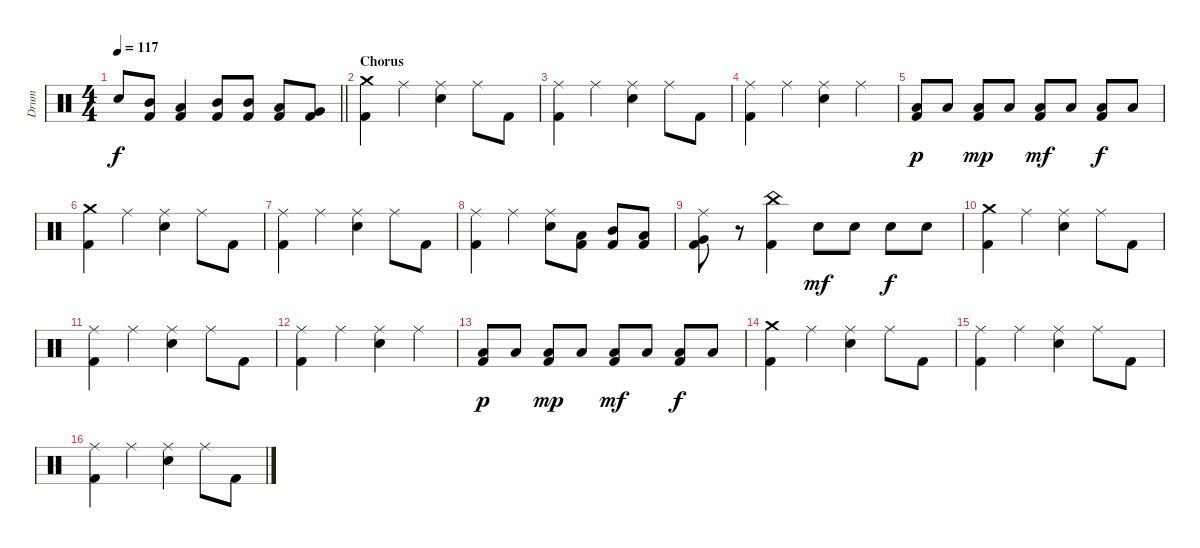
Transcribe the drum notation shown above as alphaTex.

\track ("Drum" "Drum") {instrument percussion}
\staff {score}
\articulation defaults
\ts (4 4)
\tempo 117
\clef neutral
\barLineRight lightlight
\ks c "Electric Snare (hit)".8{dy f}
("Mid Tom (hit)" "Kick (hit) 2").8 ("Low Tom (hit)" "Kick (hit) 2").4 ("Mid Tom (hit)" "Kick (hit) 2").8 ("Mid Tom (hit)" "Kick (hit) 2").8 ("Low Tom (hit)" "Kick (hit) 2").8 ("Very Low Tom (hit)" "Kick (hit) 2").8 |
\section ("" "Chorus")
("Crash medium (hit)" "Kick (hit) 2").4 "Ride (middle)".4 ("Ride (middle)" "Electric Snare (hit)").4 "Ride (middle)".8 "Kick (hit) 2".8 |
("Ride (middle)" "Kick (hit) 2").4 "Ride (middle)".4 ("Ride (middle)" "Electric Snare (hit)").4 "Ride (middle)".8 "Kick (hit) 2".8 |
("Ride (middle)" "Kick (hit) 2").4 "Ride (middle)".4 ("Ride (middle)" "Electric Snare (hit)").4 "Ride (middle)".4 |
("Low Tom (hit)" "Kick (hit) 2").8{dy p} "Low Tom (hit)".8 ("Low Tom (hit)" "Kick (hit) 2").8{dy mp} "Low Tom (hit)".8 ("Low Tom (hit)" "Kick (hit) 2").8{dy mf} "Low Tom (hit)".8 ("Low Tom (hit)" "Kick (hit) 2").8{dy f} "Low Tom (hit)".8 |
("Crash medium (hit)" "Kick (hit) 2").4 "Ride (middle)".4 ("Ride (middle)" "Electric Snare (hit)").4 "Ride (middle)".8 "Kick (hit) 2".8 |
("Ride (middle)" "Kick (hit) 2").4 "Ride (middle)".4 ("Ride (middle)" "Electric Snare (hit)").4 "Ride (middle)".8 "Kick (hit) 2".8 |
("Ride (middle)" "Kick (hit) 2").4 "Ride (middle)".4 ("Ride (middle)" "Electric Snare (hit)").8 ("Low Floor Tom (hit)" "Kick (hit) 2").8 ("Mid Tom (hit)" "Kick (hit) 2").8 ("Low Tom (hit)" "Kick (hit) 2").8 |
("Ride (middle)" "Very Low Tom (hit)" "Kick (hit) 2").8 r.8 ("China (hit)" "Kick (hit) 2").4 "Electric Snare (hit)".8{dy mf} "Electric Snare (hit)".8 "Electric Snare (hit)".8{dy f} "Electric Snare (hit)".8 |
("Crash medium (hit)" "Kick (hit) 2").4 "Ride (middle)".4 ("Ride (middle)" "Electric Snare (hit)").4 "Ride (middle)".8 "Kick (hit) 2".8 |
("Ride (middle)" "Kick (hit) 2").4 "Ride (middle)".4 ("Ride (middle)" "Electric Snare (hit)").4 "Ride (middle)".8 "Kick (hit) 2".8 |
("Ride (middle)" "Kick (hit) 2").4 "Ride (middle)".4 ("Ride (middle)" "Electric Snare (hit)").4 "Ride (middle)".4 |
("Low Tom (hit)" "Kick (hit) 2").8{dy p} "Low Tom (hit)".8 ("Low Tom (hit)" "Kick (hit) 2").8{dy mp} "Low Tom (hit)".8 ("Low Tom (hit)" "Kick (hit) 2").8{dy mf} "Low Tom (hit)".8 ("Low Tom (hit)" "Kick (hit) 2").8{dy f} "Low Tom (hit)".8 |
("Crash medium (hit)" "Kick (hit) 2").4 "Ride (middle)".4 ("Ride (middle)" "Electric Snare (hit)").4 "Ride (middle)".8 "Kick (hit) 2".8 |
("Ride (middle)" "Kick (hit) 2").4 "Ride (middle)".4 ("Ride (middle)" "Electric Snare (hit)").4 "Ride (middle)".8 "Kick (hit) 2".8 |
("Ride (middle)" "Kick (hit) 2").4 "Ride (middle)".4 ("Ride (middle)" "Electric Snare (hit)").4 "Ride (middle)".8 "Kick (hit) 2".8
